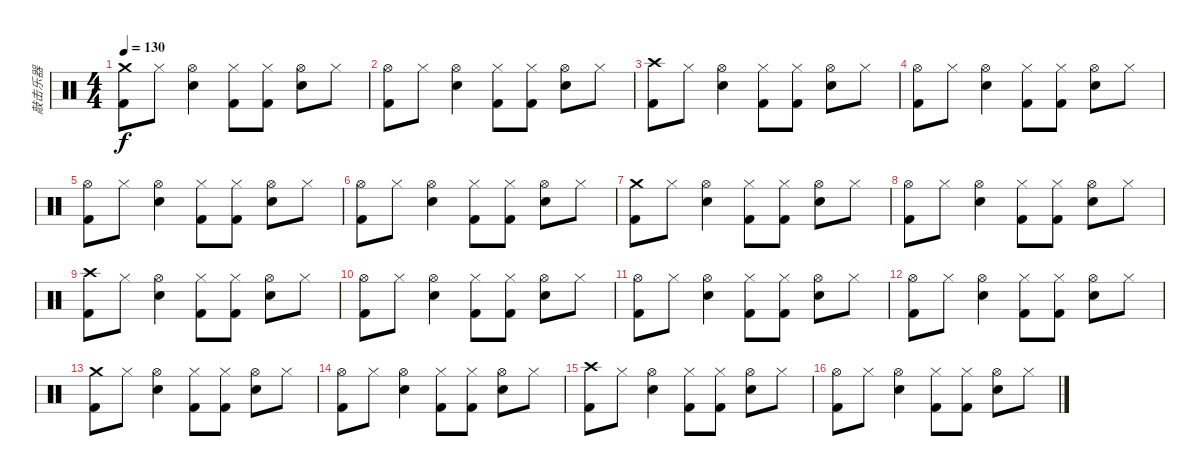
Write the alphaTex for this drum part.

\track ("敲击乐器" "敲击乐器") {instrument percussion}
\staff {score}
\articulation defaults
\ts (4 4)
\tempo 130
\clef neutral
\ks c
("Crash medium (hit)" "Kick (hit) 2").8{dy f} "Hi-Hat (closed)".8 ("Electric Snare (hit)" "Hi-Hat (open)").4 ("Hi-Hat (closed)" "Kick (hit) 2").8 ("Hi-Hat (closed)" "Kick (hit) 2").8 ("Hi-Hat (open)" "Electric Snare (hit)").8 "Hi-Hat (closed)".8 |
("Hi-Hat (open)" "Kick (hit) 2").8 "Hi-Hat (closed)".8 ("Electric Snare (hit)" "Hi-Hat (open)").4 ("Hi-Hat (closed)" "Kick (hit) 2").8 ("Hi-Hat (closed)" "Kick (hit) 2").8 ("Hi-Hat (open)" "Electric Snare (hit)").8 "Hi-Hat (closed)".8 |
("Crash high (hit)" "Kick (hit) 2").8 "Hi-Hat (closed)".8 ("Electric Snare (hit)" "Hi-Hat (open)").4 ("Hi-Hat (closed)" "Kick (hit) 2").8 ("Hi-Hat (closed)" "Kick (hit) 2").8 ("Hi-Hat (open)" "Electric Snare (hit)").8 "Hi-Hat (closed)".8 |
("Hi-Hat (open)" "Kick (hit) 2").8 "Hi-Hat (closed)".8 ("Electric Snare (hit)" "Hi-Hat (open)").4 ("Hi-Hat (closed)" "Kick (hit) 2").8 ("Hi-Hat (closed)" "Kick (hit) 2").8 ("Hi-Hat (open)" "Electric Snare (hit)").8 "Hi-Hat (closed)".8 |
("Hi-Hat (open)" "Kick (hit) 2").8 "Hi-Hat (closed)".8 ("Electric Snare (hit)" "Hi-Hat (open)").4 ("Hi-Hat (closed)" "Kick (hit) 2").8 ("Hi-Hat (closed)" "Kick (hit) 2").8 ("Hi-Hat (open)" "Electric Snare (hit)").8 "Hi-Hat (closed)".8 |
("Hi-Hat (open)" "Kick (hit) 2").8 "Hi-Hat (closed)".8 ("Electric Snare (hit)" "Hi-Hat (open)").4 ("Hi-Hat (closed)" "Kick (hit) 2").8 ("Hi-Hat (closed)" "Kick (hit) 2").8 ("Hi-Hat (open)" "Electric Snare (hit)").8 "Hi-Hat (closed)".8 |
("Crash medium (hit)" "Kick (hit) 2").8 "Hi-Hat (closed)".8 ("Electric Snare (hit)" "Hi-Hat (open)").4 ("Hi-Hat (closed)" "Kick (hit) 2").8 ("Hi-Hat (closed)" "Kick (hit) 2").8 ("Hi-Hat (open)" "Electric Snare (hit)").8 "Hi-Hat (closed)".8 |
("Hi-Hat (open)" "Kick (hit) 2").8 "Hi-Hat (closed)".8 ("Electric Snare (hit)" "Hi-Hat (open)").4 ("Hi-Hat (closed)" "Kick (hit) 2").8 ("Hi-Hat (closed)" "Kick (hit) 2").8 ("Hi-Hat (open)" "Electric Snare (hit)").8 "Hi-Hat (closed)".8 |
("Crash high (hit)" "Kick (hit) 2").8 "Hi-Hat (closed)".8 ("Electric Snare (hit)" "Hi-Hat (open)").4 ("Hi-Hat (closed)" "Kick (hit) 2").8 ("Hi-Hat (closed)" "Kick (hit) 2").8 ("Hi-Hat (open)" "Electric Snare (hit)").8 "Hi-Hat (closed)".8 |
("Hi-Hat (open)" "Kick (hit) 2").8 "Hi-Hat (closed)".8 ("Electric Snare (hit)" "Hi-Hat (open)").4 ("Hi-Hat (closed)" "Kick (hit) 2").8 ("Hi-Hat (closed)" "Kick (hit) 2").8 ("Hi-Hat (open)" "Electric Snare (hit)").8 "Hi-Hat (closed)".8 |
("Hi-Hat (open)" "Kick (hit) 2").8 "Hi-Hat (closed)".8 ("Electric Snare (hit)" "Hi-Hat (open)").4 ("Hi-Hat (closed)" "Kick (hit) 2").8 ("Hi-Hat (closed)" "Kick (hit) 2").8 ("Hi-Hat (open)" "Electric Snare (hit)").8 "Hi-Hat (closed)".8 |
("Hi-Hat (open)" "Kick (hit) 2").8 "Hi-Hat (closed)".8 ("Electric Snare (hit)" "Hi-Hat (open)").4 ("Hi-Hat (closed)" "Kick (hit) 2").8 ("Hi-Hat (closed)" "Kick (hit) 2").8 ("Hi-Hat (open)" "Electric Snare (hit)").8 "Hi-Hat (closed)".8 |
("Crash medium (hit)" "Kick (hit) 2").8 "Hi-Hat (closed)".8 ("Electric Snare (hit)" "Hi-Hat (open)").4 ("Hi-Hat (closed)" "Kick (hit) 2").8 ("Hi-Hat (closed)" "Kick (hit) 2").8 ("Hi-Hat (open)" "Electric Snare (hit)").8 "Hi-Hat (closed)".8 |
("Hi-Hat (open)" "Kick (hit) 2").8 "Hi-Hat (closed)".8 ("Electric Snare (hit)" "Hi-Hat (open)").4 ("Hi-Hat (closed)" "Kick (hit) 2").8 ("Hi-Hat (closed)" "Kick (hit) 2").8 ("Hi-Hat (open)" "Electric Snare (hit)").8 "Hi-Hat (closed)".8 |
("Crash high (hit)" "Kick (hit) 2").8 "Hi-Hat (closed)".8 ("Electric Snare (hit)" "Hi-Hat (open)").4 ("Hi-Hat (closed)" "Kick (hit) 2").8 ("Hi-Hat (closed)" "Kick (hit) 2").8 ("Hi-Hat (open)" "Electric Snare (hit)").8 "Hi-Hat (closed)".8 |
("Hi-Hat (open)" "Kick (hit) 2").8 "Hi-Hat (closed)".8 ("Electric Snare (hit)" "Hi-Hat (open)").4 ("Hi-Hat (closed)" "Kick (hit) 2").8 ("Hi-Hat (closed)" "Kick (hit) 2").8 ("Hi-Hat (open)" "Electric Snare (hit)").8 "Hi-Hat (closed)".8
